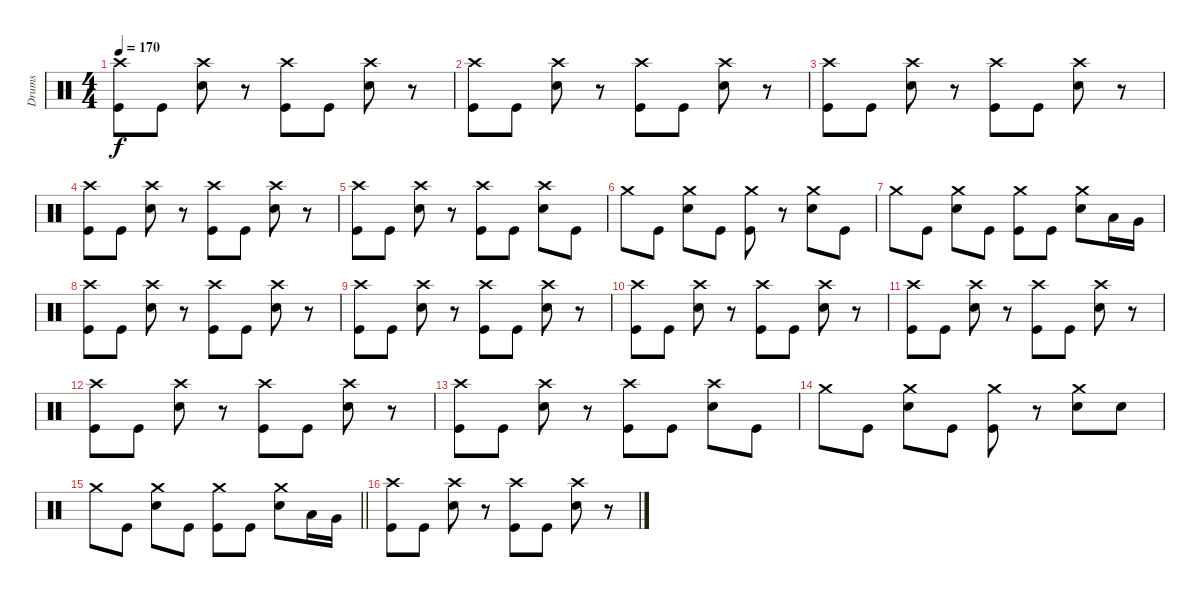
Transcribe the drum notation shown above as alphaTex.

\track ("Drums" "Drums") {instrument percussion}
\staff {score}
\articulation defaults
\ts (4 4)
\tempo 170
\clef neutral
\ks c
("Crash high (hit)" "Kick (hit)").8{dy f} "Kick (hit)".8 ("Crash high (hit)" "Snare (hit) 2").8 r.8 ("Crash high (hit)" "Kick (hit)").8 "Kick (hit)".8 ("Crash high (hit)" "Snare (hit) 2").8 r.8 |
("Crash high (hit)" "Kick (hit)").8 "Kick (hit)".8 ("Crash high (hit)" "Snare (hit) 2").8 r.8 ("Crash high (hit)" "Kick (hit)").8 "Kick (hit)".8 ("Crash high (hit)" "Snare (hit) 2").8 r.8 |
("Crash high (hit)" "Kick (hit)").8 "Kick (hit)".8 ("Crash high (hit)" "Snare (hit) 2").8 r.8 ("Crash high (hit)" "Kick (hit)").8 "Kick (hit)".8 ("Crash high (hit)" "Snare (hit) 2").8 r.8 |
("Crash high (hit)" "Kick (hit)").8 "Kick (hit)".8 ("Crash high (hit)" "Snare (hit) 2").8 r.8 ("Crash high (hit)" "Kick (hit)").8 "Kick (hit)".8 ("Crash high (hit)" "Snare (hit) 2").8 r.8 |
("Crash high (hit)" "Kick (hit)").8 "Kick (hit)".8 ("Crash high (hit)" "Snare (hit) 2").8 r.8 ("Crash high (hit)" "Kick (hit)").8 "Kick (hit)".8 ("Crash high (hit)" "Snare (hit) 2").8 "Kick (hit)".8 |
"Crash medium (hit)".8 "Kick (hit)".8 ("Crash medium (hit)" "Snare (hit) 2").8 "Kick (hit)".8 ("Crash medium (hit)" "Kick (hit)").8 r.8 ("Crash medium (hit)" "Snare (hit) 2").8 "Kick (hit)".8 |
"Crash medium (hit)".8 "Kick (hit)".8 ("Crash medium (hit)" "Snare (hit) 2").8 "Kick (hit)".8 ("Crash medium (hit)" "Kick (hit)").8 "Kick (hit)".8 ("Crash medium (hit)" "Snare (hit) 2").8 "Low Tom (hit)".16 "Very Low Tom (hit)".16 |
("Crash high (hit)" "Kick (hit)").8 "Kick (hit)".8 ("Crash high (hit)" "Snare (hit) 2").8 r.8 ("Crash high (hit)" "Kick (hit)").8 "Kick (hit)".8 ("Crash high (hit)" "Snare (hit) 2").8 r.8 |
("Crash high (hit)" "Kick (hit)").8 "Kick (hit)".8 ("Crash high (hit)" "Snare (hit) 2").8 r.8 ("Crash high (hit)" "Kick (hit)").8 "Kick (hit)".8 ("Crash high (hit)" "Snare (hit) 2").8 r.8 |
("Crash high (hit)" "Kick (hit)").8 "Kick (hit)".8 ("Crash high (hit)" "Snare (hit) 2").8 r.8 ("Crash high (hit)" "Kick (hit)").8 "Kick (hit)".8 ("Crash high (hit)" "Snare (hit) 2").8 r.8 |
("Crash high (hit)" "Kick (hit)").8 "Kick (hit)".8 ("Crash high (hit)" "Snare (hit) 2").8 r.8 ("Crash high (hit)" "Kick (hit)").8 "Kick (hit)".8 ("Crash high (hit)" "Snare (hit) 2").8 r.8 |
("Crash high (hit)" "Kick (hit)").8 "Kick (hit)".8 ("Crash high (hit)" "Snare (hit) 2").8 r.8 ("Crash high (hit)" "Kick (hit)").8 "Kick (hit)".8 ("Crash high (hit)" "Snare (hit) 2").8 r.8 |
("Crash high (hit)" "Kick (hit)").8 "Kick (hit)".8 ("Crash high (hit)" "Snare (hit) 2").8 r.8 ("Crash high (hit)" "Kick (hit)").8 "Kick (hit)".8 ("Crash high (hit)" "Snare (hit) 2").8 "Kick (hit)".8 |
"Crash medium (hit)".8 "Kick (hit)".8 ("Crash medium (hit)" "Snare (hit) 2").8 "Kick (hit)".8 ("Crash medium (hit)" "Kick (hit)").8 r.8 ("Crash medium (hit)" "Snare (hit) 2").8 "Snare (hit) 2".8 |
\barLineRight lightlight "Crash medium (hit)".8 "Kick (hit)".8
("Crash medium (hit)" "Snare (hit) 2").8 "Kick (hit)".8 ("Crash medium (hit)" "Kick (hit)").8 "Kick (hit)".8 ("Crash medium (hit)" "Snare (hit) 2").8 "Low Tom (hit)".16 "Very Low Tom (hit)".16 |
("Crash high (hit)" "Kick (hit)").8 "Kick (hit)".8 ("Crash high (hit)" "Snare (hit) 2").8 r.8 ("Crash high (hit)" "Kick (hit)").8 "Kick (hit)".8 ("Crash high (hit)" "Snare (hit) 2").8 r.8
